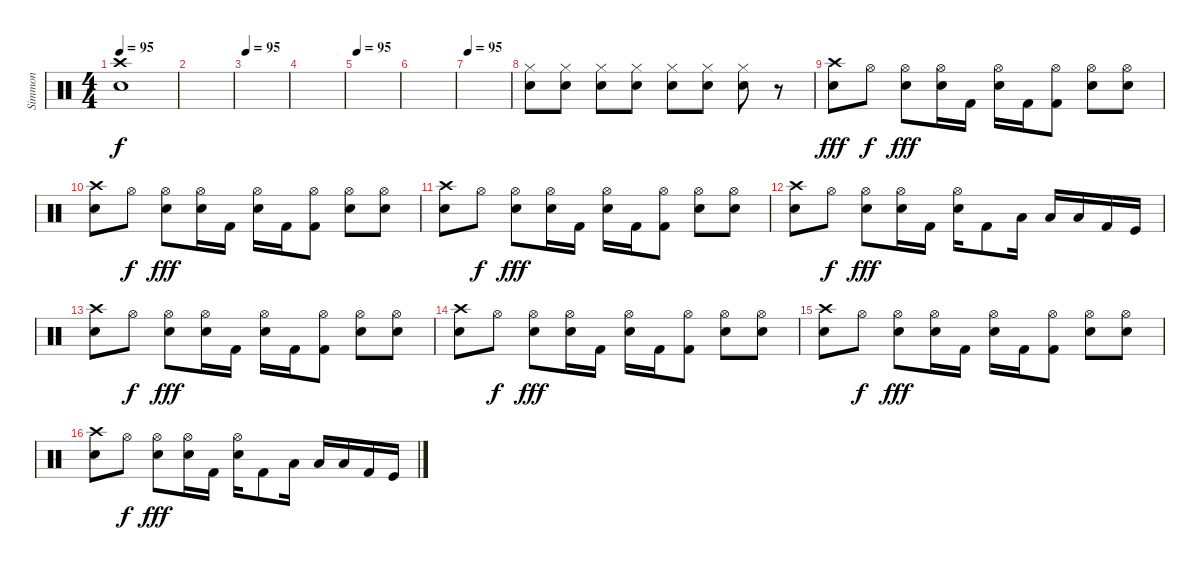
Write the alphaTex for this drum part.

\track ("Simmon" "Simmon") {instrument percussion}
\staff {score}
\articulation defaults
\ts (4 4)
\tempo 95
\clef neutral
\ks c
("Electric Snare (hit)" "Crash high (hit)").1{dy f} |
|
\tempo 95
|
|
\tempo 95
|
|
\tempo 95
|
("Electric Snare (hit)" "Hi-Hat (closed)").8 ("Electric Snare (hit)" "Hi-Hat (closed)").8 ("Electric Snare (hit)" "Hi-Hat (closed)").8 ("Electric Snare (hit)" "Hi-Hat (closed)").8 ("Electric Snare (hit)" "Hi-Hat (closed)").8 ("Electric Snare (hit)" "Hi-Hat (closed)").8 ("Electric Snare (hit)" "Hi-Hat (closed)").8 r.8 |
("Electric Snare (hit)" "Crash high (hit)").8{dy fff} "Hi-Hat (open)".8{dy f} ("Electric Snare (hit)" "Hi-Hat (open)").8{dy fff} ("Electric Snare (hit)" "Hi-Hat (open)").16 "Kick (hit) 2".16 ("Electric Snare (hit)" "Hi-Hat (open)").16 "Kick (hit) 2".16 ("Kick (hit) 2" "Hi-Hat (open)").8 ("Electric Snare (hit)" "Hi-Hat (open)").8 ("Electric Snare (hit)" "Hi-Hat (open)").8 |
("Electric Snare (hit)" "Crash high (hit)").8 "Hi-Hat (open)".8{dy f} ("Electric Snare (hit)" "Hi-Hat (open)").8{dy fff} ("Electric Snare (hit)" "Hi-Hat (open)").16 "Kick (hit) 2".16 ("Electric Snare (hit)" "Hi-Hat (open)").16 "Kick (hit) 2".16 ("Kick (hit) 2" "Hi-Hat (open)").8 ("Electric Snare (hit)" "Hi-Hat (open)").8 ("Electric Snare (hit)" "Hi-Hat (open)").8 |
("Electric Snare (hit)" "Crash high (hit)").8 "Hi-Hat (open)".8{dy f} ("Electric Snare (hit)" "Hi-Hat (open)").8{dy fff} ("Electric Snare (hit)" "Hi-Hat (open)").16 "Kick (hit) 2".16 ("Electric Snare (hit)" "Hi-Hat (open)").16 "Kick (hit) 2".16 ("Kick (hit) 2" "Hi-Hat (open)").8 ("Electric Snare (hit)" "Hi-Hat (open)").8 ("Electric Snare (hit)" "Hi-Hat (open)").8 |
("Electric Snare (hit)" "Crash high (hit)").8 "Hi-Hat (open)".8{dy f} ("Electric Snare (hit)" "Hi-Hat (open)").8{dy fff} ("Electric Snare (hit)" "Hi-Hat (open)").16 "Kick (hit) 2".16 ("Electric Snare (hit)" "Hi-Hat (open)").16 "Kick (hit) 2".8 "Low Floor Tom (hit)".16 "Low Floor Tom (hit)".16 "Low Floor Tom (hit)".16 "Kick (hit) 2".16 "Kick (hit)".16 |
("Electric Snare (hit)" "Crash high (hit)").8 "Hi-Hat (open)".8{dy f} ("Electric Snare (hit)" "Hi-Hat (open)").8{dy fff} ("Electric Snare (hit)" "Hi-Hat (open)").16 "Kick (hit) 2".16 ("Electric Snare (hit)" "Hi-Hat (open)").16 "Kick (hit) 2".16 ("Kick (hit) 2" "Hi-Hat (open)").8 ("Electric Snare (hit)" "Hi-Hat (open)").8 ("Electric Snare (hit)" "Hi-Hat (open)").8 |
("Electric Snare (hit)" "Crash high (hit)").8 "Hi-Hat (open)".8{dy f} ("Electric Snare (hit)" "Hi-Hat (open)").8{dy fff} ("Electric Snare (hit)" "Hi-Hat (open)").16 "Kick (hit) 2".16 ("Electric Snare (hit)" "Hi-Hat (open)").16 "Kick (hit) 2".16 ("Kick (hit) 2" "Hi-Hat (open)").8 ("Electric Snare (hit)" "Hi-Hat (open)").8 ("Electric Snare (hit)" "Hi-Hat (open)").8 |
("Electric Snare (hit)" "Crash high (hit)").8 "Hi-Hat (open)".8{dy f} ("Electric Snare (hit)" "Hi-Hat (open)").8{dy fff} ("Electric Snare (hit)" "Hi-Hat (open)").16 "Kick (hit) 2".16 ("Electric Snare (hit)" "Hi-Hat (open)").16 "Kick (hit) 2".16 ("Kick (hit) 2" "Hi-Hat (open)").8 ("Electric Snare (hit)" "Hi-Hat (open)").8 ("Electric Snare (hit)" "Hi-Hat (open)").8 |
("Electric Snare (hit)" "Crash high (hit)").8 "Hi-Hat (open)".8{dy f} ("Electric Snare (hit)" "Hi-Hat (open)").8{dy fff} ("Electric Snare (hit)" "Hi-Hat (open)").16 "Kick (hit) 2".16 ("Electric Snare (hit)" "Hi-Hat (open)").16 "Kick (hit) 2".8 "Low Floor Tom (hit)".16 "Low Floor Tom (hit)".16 "Low Floor Tom (hit)".16 "Kick (hit) 2".16 "Kick (hit)".16
